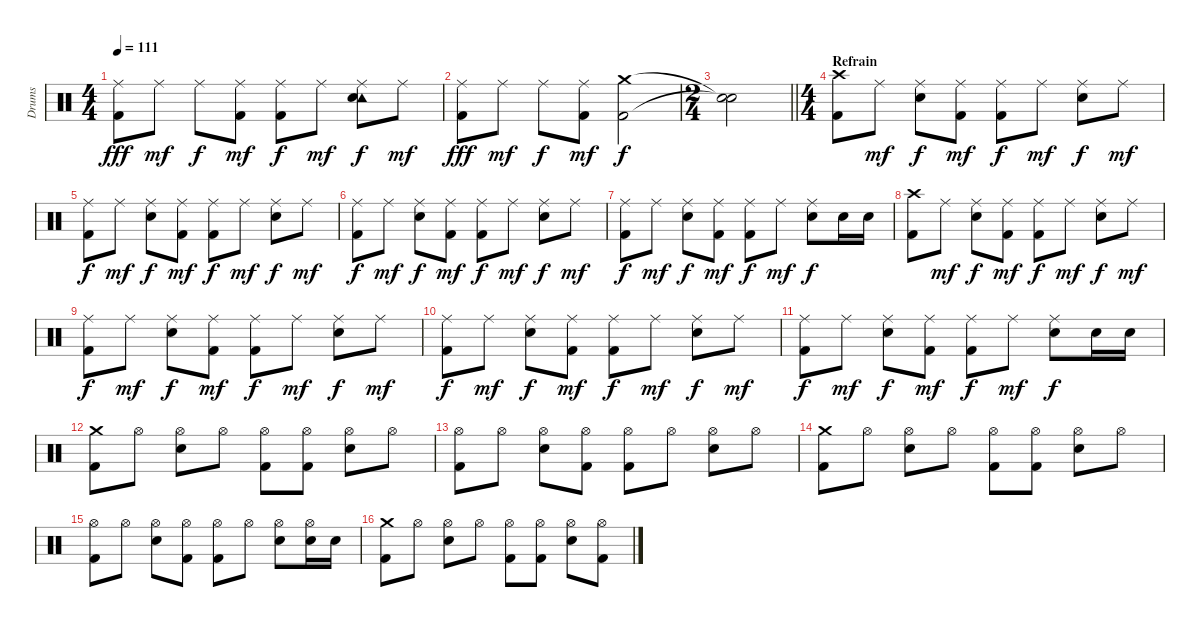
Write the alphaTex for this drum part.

\track ("Drums" "Drums") {instrument percussion}
\staff {score}
\articulation defaults
\ts (4 4)
\tempo 111
\clef neutral
\ks c
("Ride (middle)" "Kick (hit) 2").8{dy fff} "Ride (middle)".8{dy mf} "Ride (middle)".8{dy f} ("Ride (middle)" "Kick (hit) 2").8{dy mf} ("Ride (middle)" "Kick (hit) 2").8{dy f} "Ride (middle)".8{dy mf} ("Ride (middle)" "Tambourine (hit)" "Snare (hit) 2").8{dy f} "Ride (middle)".8{dy mf} |
("Ride (middle)" "Kick (hit) 2").8{dy fff} "Ride (middle)".8{dy mf} "Ride (middle)".8{dy f} ("Ride (middle)" "Kick (hit) 2").8{dy mf} ("Crash medium (hit)" "Kick (hit) 2").2{dy f} |
\ts (2 4)
\barLineRight lightlight
("Snare (hit)"{t} "Snare (hit)"{t}).2 |
\ts (4 4)
\section ("" "Refrain")
("Crash high (hit)" "Kick (hit) 2").8 "Ride (middle)".8{dy mf} ("Ride (middle)" "Snare (hit) 2").8{dy f} ("Ride (middle)" "Kick (hit) 2").8{dy mf} ("Ride (middle)" "Kick (hit) 2").8{dy f} "Ride (middle)".8{dy mf} ("Ride (middle)" "Snare (hit) 2").8{dy f} "Ride (middle)".8{dy mf} |
("Ride (middle)" "Kick (hit) 2").8{dy f} "Ride (middle)".8{dy mf} ("Ride (middle)" "Snare (hit) 2").8{dy f} ("Ride (middle)" "Kick (hit) 2").8{dy mf} ("Ride (middle)" "Kick (hit) 2").8{dy f} "Ride (middle)".8{dy mf} ("Ride (middle)" "Snare (hit) 2").8{dy f} "Ride (middle)".8{dy mf} |
("Ride (middle)" "Kick (hit) 2").8{dy f} "Ride (middle)".8{dy mf} ("Ride (middle)" "Snare (hit) 2").8{dy f} ("Ride (middle)" "Kick (hit) 2").8{dy mf} ("Ride (middle)" "Kick (hit) 2").8{dy f} "Ride (middle)".8{dy mf} ("Ride (middle)" "Snare (hit) 2").8{dy f} "Ride (middle)".8{dy mf} |
("Ride (middle)" "Kick (hit) 2").8{dy f} "Ride (middle)".8{dy mf} ("Ride (middle)" "Snare (hit) 2").8{dy f} ("Ride (middle)" "Kick (hit) 2").8{dy mf} ("Ride (middle)" "Kick (hit) 2").8{dy f} "Ride (middle)".8{dy mf} ("Ride (middle)" "Snare (hit) 2").8{dy f} "Snare (hit) 2".16 "Snare (hit) 2".16 |
("Crash high (hit)" "Kick (hit) 2").8 "Ride (middle)".8{dy mf} ("Ride (middle)" "Snare (hit) 2").8{dy f} ("Ride (middle)" "Kick (hit) 2").8{dy mf} ("Ride (middle)" "Kick (hit) 2").8{dy f} "Ride (middle)".8{dy mf} ("Ride (middle)" "Snare (hit) 2").8{dy f} "Ride (middle)".8{dy mf} |
("Ride (middle)" "Kick (hit) 2").8{dy f} "Ride (middle)".8{dy mf} ("Ride (middle)" "Snare (hit) 2").8{dy f} ("Ride (middle)" "Kick (hit) 2").8{dy mf} ("Ride (middle)" "Kick (hit) 2").8{dy f} "Ride (middle)".8{dy mf} ("Ride (middle)" "Snare (hit) 2").8{dy f} "Ride (middle)".8{dy mf} |
("Ride (middle)" "Kick (hit) 2").8{dy f} "Ride (middle)".8{dy mf} ("Ride (middle)" "Snare (hit) 2").8{dy f} ("Ride (middle)" "Kick (hit) 2").8{dy mf} ("Ride (middle)" "Kick (hit) 2").8{dy f} "Ride (middle)".8{dy mf} ("Ride (middle)" "Snare (hit) 2").8{dy f} "Ride (middle)".8{dy mf} |
("Ride (middle)" "Kick (hit) 2").8{dy f} "Ride (middle)".8{dy mf} ("Ride (middle)" "Snare (hit) 2").8{dy f} ("Ride (middle)" "Kick (hit) 2").8{dy mf} ("Ride (middle)" "Kick (hit) 2").8{dy f} "Ride (middle)".8{dy mf} ("Ride (middle)" "Snare (hit) 2").8{dy f} "Snare (hit) 2".16 "Snare (hit) 2".16 |
("Crash medium (hit)" "Kick (hit) 2").8 "Hi-Hat (open)".8 ("Hi-Hat (open)" "Snare (hit) 2").8 "Hi-Hat (open)".8 ("Hi-Hat (open)" "Kick (hit) 2").8 ("Hi-Hat (open)" "Kick (hit) 2").8 ("Hi-Hat (open)" "Snare (hit) 2").8 "Hi-Hat (open)".8 |
("Hi-Hat (open)" "Kick (hit) 2").8 "Hi-Hat (open)".8 ("Hi-Hat (open)" "Snare (hit) 2").8 ("Hi-Hat (open)" "Kick (hit) 2").8 ("Hi-Hat (open)" "Kick (hit) 2").8 "Hi-Hat (open)".8 ("Hi-Hat (open)" "Snare (hit) 2").8 "Hi-Hat (open)".8 |
("Crash medium (hit)" "Kick (hit) 2").8 "Hi-Hat (open)".8 ("Hi-Hat (open)" "Snare (hit) 2").8 "Hi-Hat (open)".8 ("Hi-Hat (open)" "Kick (hit) 2").8 ("Hi-Hat (open)" "Kick (hit) 2").8 ("Hi-Hat (open)" "Snare (hit) 2").8 "Hi-Hat (open)".8 |
("Hi-Hat (open)" "Kick (hit) 2").8 "Hi-Hat (open)".8 ("Hi-Hat (open)" "Snare (hit) 2").8 ("Hi-Hat (open)" "Kick (hit) 2").8 ("Hi-Hat (open)" "Kick (hit) 2").8 "Hi-Hat (open)".8 ("Hi-Hat (open)" "Snare (hit) 2").8 ("Hi-Hat (open)" "Snare (hit) 2").16 "Snare (hit) 2".16 |
("Crash medium (hit)" "Kick (hit) 2").8 "Hi-Hat (open)".8 ("Hi-Hat (open)" "Snare (hit) 2").8 "Hi-Hat (open)".8 ("Hi-Hat (open)" "Kick (hit) 2").8 ("Hi-Hat (open)" "Kick (hit) 2").8 ("Hi-Hat (open)" "Snare (hit) 2").8 ("Hi-Hat (open)" "Kick (hit) 2").8
